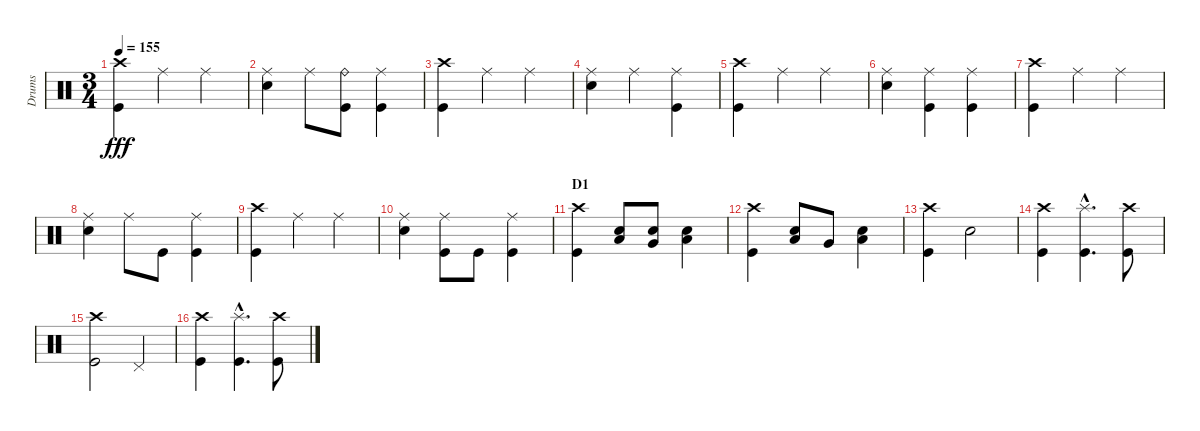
\track ("Drums" "Drums") {instrument percussion}
\staff {score}
\articulation defaults
\ts (3 4)
\tempo 155
\clef neutral
\ks c
("Crash high (hit)" "Kick (hit)").4{dy fff} "Ride (middle)".4 "Ride (middle)".4 |
("Ride (middle)" "Snare (hit) 2").4 "Ride (middle)".8 ("Ride (bell)" "Kick (hit)").8 ("Ride (middle)" "Kick (hit)").4 |
("Crash high (hit)" "Kick (hit)").4 "Ride (middle)".4 "Ride (middle)".4 |
("Ride (middle)" "Snare (hit) 2").4 "Ride (middle)".4 ("Ride (middle)" "Kick (hit)").4 |
("Crash high (hit)" "Kick (hit)").4 "Ride (middle)".4 "Ride (middle)".4 |
("Ride (middle)" "Snare (hit) 2").4 ("Ride (middle)" "Kick (hit)").4 ("Ride (middle)" "Kick (hit)").4 |
("Crash high (hit)" "Kick (hit)").4 "Ride (middle)".4 "Ride (middle)".4 |
("Ride (middle)" "Snare (hit) 2").4 "Ride (middle)".8 "Kick (hit)".8 ("Ride (middle)" "Kick (hit)").4 |
("Crash high (hit)" "Kick (hit)").4 "Ride (middle)".4 "Ride (middle)".4 |
("Ride (middle)" "Snare (hit) 2").4 ("Ride (middle)" "Kick (hit)").8 "Kick (hit)".8 ("Ride (middle)" "Kick (hit)").4 |
\section ("" "D1")
("Crash high (hit)" "Kick (hit)").4 ("Low Tom (hit)" "Hand Clap (hit)").8 ("Very Low Tom (hit)" "Hand Clap (hit)").8 ("Low Floor Tom (hit)" "Hand Clap (hit)").4 |
("Crash high (hit)" "Kick (hit)").4 ("Low Tom (hit)" "Hand Clap (hit)").8 "Very Low Tom (hit)".8 ("Low Tom (hit)" "Hand Clap (hit)").4 |
("Crash high (hit)" "Kick (hit)").4 "Hand Clap (hit)".2 |
("Crash high (hit)" "Kick (hit)").4 ("Splash (hit)"{hac} "Kick (hit)"{hac}).4{d} ("Crash high (hit)" "Kick (hit)").8 |
("Crash high (hit)" "Kick (hit)").2 "Pedal Hi-Hat (hit)".4 |
("Crash high (hit)" "Kick (hit)").4 ("Splash (hit)"{hac} "Kick (hit)"{hac}).4{d} ("Crash high (hit)" "Kick (hit)").8
